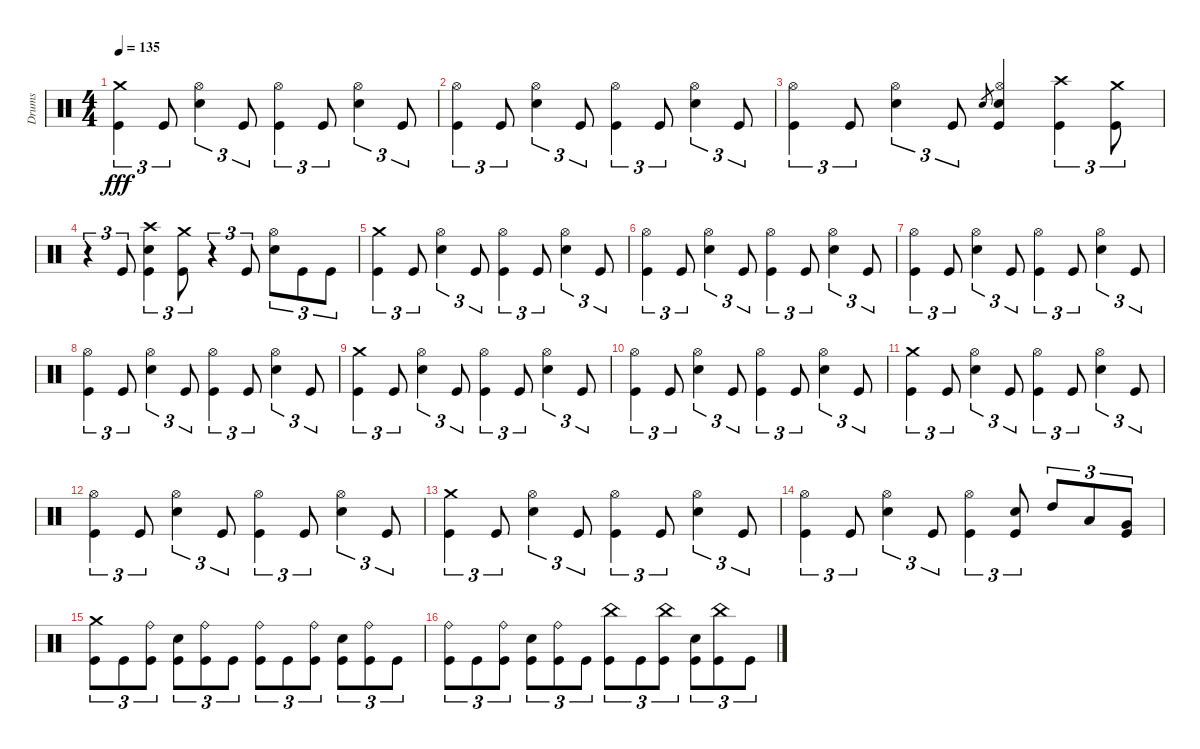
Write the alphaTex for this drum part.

\track ("Drums" "Drums") {instrument percussion}
\staff {score}
\articulation defaults
\ts (4 4)
\tempo 135
\clef neutral
\ks c
("Crash medium (hit)" "Kick (hit)").4{tu (3 2) dy fff} "Kick (hit)".8{tu (3 2)} ("Hi-Hat (open)" "Snare (hit) 2").4{tu (3 2)} "Kick (hit)".8{tu (3 2)} ("Hi-Hat (open)" "Kick (hit)").4{tu (3 2)} "Kick (hit)".8{tu (3 2)} ("Hi-Hat (open)" "Snare (hit) 2").4{tu (3 2)} "Kick (hit)".8{tu (3 2)} |
("Hi-Hat (open)" "Kick (hit)").4{tu (3 2)} "Kick (hit)".8{tu (3 2)} ("Hi-Hat (open)" "Snare (hit) 2").4{tu (3 2)} "Kick (hit)".8{tu (3 2)} ("Hi-Hat (open)" "Kick (hit)").4{tu (3 2)} "Kick (hit)".8{tu (3 2)} ("Hi-Hat (open)" "Snare (hit) 2").4{tu (3 2)} "Kick (hit)".8{tu (3 2)} |
("Hi-Hat (open)" "Kick (hit)").4{tu (3 2)} "Kick (hit)".8{tu (3 2)} ("Hi-Hat (open)" "Snare (hit) 2").4{tu (3 2)} "Kick (hit)".8{tu (3 2)} "Snare (hit) 2".8{gr} ("Hi-Hat (open)" "Snare (hit) 2" "Kick (hit)").4 ("Crash high (hit)" "Kick (hit)").4{tu (3 2)} ("Crash medium (hit)" "Kick (hit)").8{tu (3 2)} |
r.4{tu (3 2)} "Kick (hit)".8{tu (3 2)} ("Crash high (hit)" "Snare (hit) 2" "Kick (hit)").4{tu (3 2)} ("Crash medium (hit)" "Kick (hit)").8{tu (3 2)} r.4{tu (3 2)} "Kick (hit)".8{tu (3 2)} ("Hi-Hat (open)" "Snare (hit) 2").8{tu (3 2)} "Kick (hit)".8{tu (3 2)} "Kick (hit)".8{tu (3 2)} |
("Crash medium (hit)" "Kick (hit)").4{tu (3 2)} "Kick (hit)".8{tu (3 2)} ("Hi-Hat (open)" "Snare (hit) 2").4{tu (3 2)} "Kick (hit)".8{tu (3 2)} ("Hi-Hat (open)" "Kick (hit)").4{tu (3 2)} "Kick (hit)".8{tu (3 2)} ("Hi-Hat (open)" "Snare (hit) 2").4{tu (3 2)} "Kick (hit)".8{tu (3 2)} |
("Hi-Hat (open)" "Kick (hit)").4{tu (3 2)} "Kick (hit)".8{tu (3 2)} ("Hi-Hat (open)" "Snare (hit) 2").4{tu (3 2)} "Kick (hit)".8{tu (3 2)} ("Hi-Hat (open)" "Kick (hit)").4{tu (3 2)} "Kick (hit)".8{tu (3 2)} ("Hi-Hat (open)" "Snare (hit) 2").4{tu (3 2)} "Kick (hit)".8{tu (3 2)} |
("Hi-Hat (open)" "Kick (hit)").4{tu (3 2)} "Kick (hit)".8{tu (3 2)} ("Hi-Hat (open)" "Snare (hit) 2").4{tu (3 2)} "Kick (hit)".8{tu (3 2)} ("Hi-Hat (open)" "Kick (hit)").4{tu (3 2)} "Kick (hit)".8{tu (3 2)} ("Hi-Hat (open)" "Snare (hit) 2").4{tu (3 2)} "Kick (hit)".8{tu (3 2)} |
("Hi-Hat (open)" "Kick (hit)").4{tu (3 2)} "Kick (hit)".8{tu (3 2)} ("Hi-Hat (open)" "Snare (hit) 2").4{tu (3 2)} "Kick (hit)".8{tu (3 2)} ("Hi-Hat (open)" "Kick (hit)").4{tu (3 2)} "Kick (hit)".8{tu (3 2)} ("Hi-Hat (open)" "Snare (hit) 2").4{tu (3 2)} "Kick (hit)".8{tu (3 2)} |
("Crash medium (hit)" "Kick (hit)").4{tu (3 2)} "Kick (hit)".8{tu (3 2)} ("Hi-Hat (open)" "Snare (hit) 2").4{tu (3 2)} "Kick (hit)".8{tu (3 2)} ("Hi-Hat (open)" "Kick (hit)").4{tu (3 2)} "Kick (hit)".8{tu (3 2)} ("Hi-Hat (open)" "Snare (hit) 2").4{tu (3 2)} "Kick (hit)".8{tu (3 2)} |
("Hi-Hat (open)" "Kick (hit)").4{tu (3 2)} "Kick (hit)".8{tu (3 2)} ("Hi-Hat (open)" "Snare (hit) 2").4{tu (3 2)} "Kick (hit)".8{tu (3 2)} ("Hi-Hat (open)" "Kick (hit)").4{tu (3 2)} "Kick (hit)".8{tu (3 2)} ("Hi-Hat (open)" "Snare (hit) 2").4{tu (3 2)} "Kick (hit)".8{tu (3 2)} |
("Crash medium (hit)" "Kick (hit)").4{tu (3 2)} "Kick (hit)".8{tu (3 2)} ("Hi-Hat (open)" "Snare (hit) 2").4{tu (3 2)} "Kick (hit)".8{tu (3 2)} ("Hi-Hat (open)" "Kick (hit)").4{tu (3 2)} "Kick (hit)".8{tu (3 2)} ("Hi-Hat (open)" "Snare (hit) 2").4{tu (3 2)} "Kick (hit)".8{tu (3 2)} |
("Hi-Hat (open)" "Kick (hit)").4{tu (3 2)} "Kick (hit)".8{tu (3 2)} ("Hi-Hat (open)" "Snare (hit) 2").4{tu (3 2)} "Kick (hit)".8{tu (3 2)} ("Hi-Hat (open)" "Kick (hit)").4{tu (3 2)} "Kick (hit)".8{tu (3 2)} ("Hi-Hat (open)" "Snare (hit) 2").4{tu (3 2)} "Kick (hit)".8{tu (3 2)} |
("Crash medium (hit)" "Kick (hit)").4{tu (3 2)} "Kick (hit)".8{tu (3 2)} ("Hi-Hat (open)" "Snare (hit) 2").4{tu (3 2)} "Kick (hit)".8{tu (3 2)} ("Hi-Hat (open)" "Kick (hit)").4{tu (3 2)} "Kick (hit)".8{tu (3 2)} ("Hi-Hat (open)" "Snare (hit) 2").4{tu (3 2)} "Kick (hit)".8{tu (3 2)} |
("Hi-Hat (open)" "Kick (hit)").4{tu (3 2)} "Kick (hit)".8{tu (3 2)} ("Hi-Hat (open)" "Snare (hit) 2").4{tu (3 2)} "Kick (hit)".8{tu (3 2)} ("Hi-Hat (open)" "Kick (hit)").4{tu (3 2)} ("Snare (hit) 2" "Kick (hit)").8{tu (3 2)} "High Tom (hit)".8{tu (3 2)} "Low Tom (hit)".8{tu (3 2)} ("Very Low Tom (hit)" "Kick (hit)").8{tu (3 2)} |
("Crash medium (hit)" "Kick (hit)").8{tu (3 2)} "Kick (hit)".8{tu (3 2)} ("Ride (bell)" "Kick (hit)").8{tu (3 2)} ("Snare (hit) 2" "Kick (hit)").8{tu (3 2)} ("Ride (bell)" "Kick (hit)").8{tu (3 2)} "Kick (hit)".8{tu (3 2)} ("Ride (bell)" "Kick (hit)").8{tu (3 2)} "Kick (hit)".8{tu (3 2)} ("Ride (bell)" "Kick (hit)").8{tu (3 2)} ("Snare (hit) 2" "Kick (hit)").8{tu (3 2)} ("Ride (bell)" "Kick (hit)").8{tu (3 2)} "Kick (hit)".8{tu (3 2)} |
("Ride (bell)" "Kick (hit)").8{tu (3 2)} "Kick (hit)".8{tu (3 2)} ("Ride (bell)" "Kick (hit)").8{tu (3 2)} ("Snare (hit) 2" "Kick (hit)").8{tu (3 2)} ("Ride (bell)" "Kick (hit)").8{tu (3 2)} "Kick (hit)".8{tu (3 2)} ("China (hit)" "Kick (hit)").8{tu (3 2)} "Kick (hit)".8{tu (3 2)} ("China (hit)" "Kick (hit)").8{tu (3 2)} ("Snare (hit) 2" "Kick (hit)").8{tu (3 2)} ("China (hit)" "Kick (hit)").8{tu (3 2)} "Kick (hit)".8{tu (3 2)}
